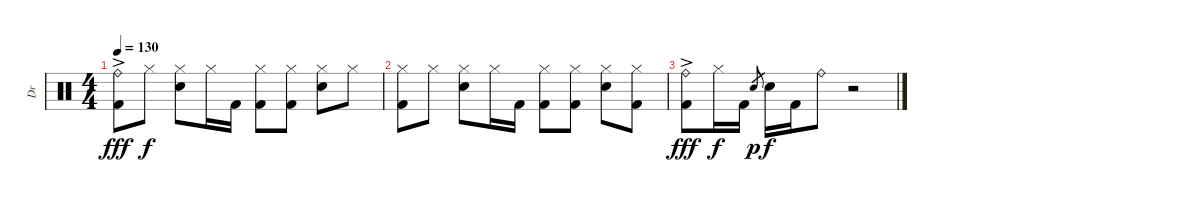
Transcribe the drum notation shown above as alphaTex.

\track ("Dr" "Dr") {instrument percussion}
\staff {score}
\articulation defaults
\ts (4 4)
\tempo 130
\clef neutral
\ks c
("Ride (bell)"{ac} "Kick (hit) 2"{ac}).8{dy fff} "Hi-Hat (closed)".8{dy f} ("Hi-Hat (closed)" "Electric Snare (hit)").8 "Hi-Hat (closed)".16 "Kick (hit) 2".16 ("Hi-Hat (closed)" "Kick (hit) 2").8 ("Hi-Hat (closed)" "Kick (hit) 2").8 ("Hi-Hat (closed)" "Electric Snare (hit)").8 "Hi-Hat (closed)".8 |
("Hi-Hat (closed)" "Kick (hit) 2").8 "Hi-Hat (closed)".8 ("Hi-Hat (closed)" "Electric Snare (hit)").8 "Hi-Hat (closed)".16 "Kick (hit) 2".16 ("Hi-Hat (closed)" "Kick (hit) 2").8 ("Hi-Hat (closed)" "Kick (hit) 2").8 ("Hi-Hat (closed)" "Electric Snare (hit)").8 ("Hi-Hat (closed)" "Kick (hit) 2").8 |
("Ride (bell)"{ac} "Kick (hit) 2"{ac}).8{dy fff} "Hi-Hat (closed)".16{dy f} "Kick (hit) 2".16 "Electric Snare (hit)".8{gr dy p} "Electric Snare (hit)".16{dy f} "Kick (hit) 2".16 "Ride (bell)".8 r.2
